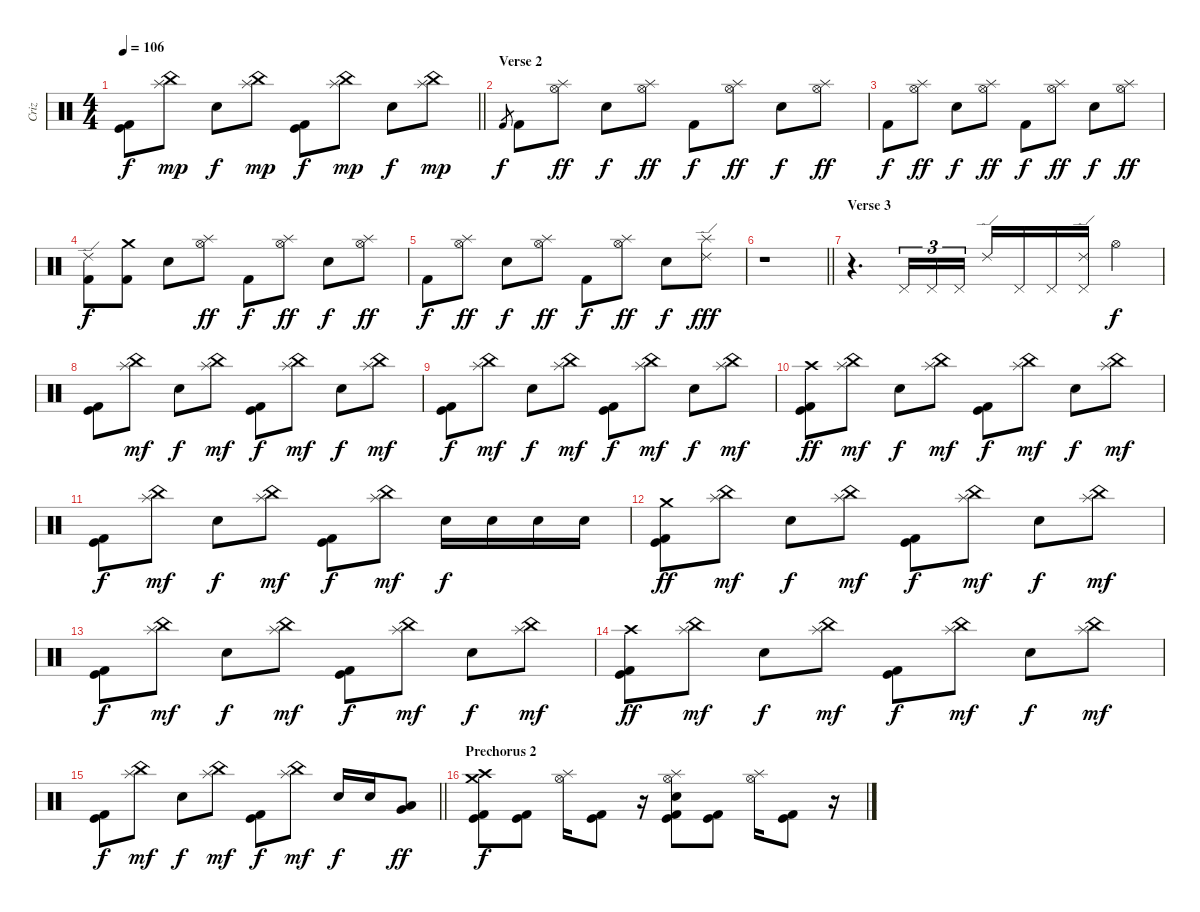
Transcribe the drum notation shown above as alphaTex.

\track ("Criz" "Criz") {instrument percussion}
\staff {score}
\articulation defaults
\ts (4 4)
\tempo 106
\clef neutral
\barLineRight lightlight
\ks c
("Kick (hit)" "Kick (hit) 2").8{dy f} ("Splash (hit)" "China (hit)").8{dy mp} "Snare (hit) 2".8{dy f} ("Splash (hit)" "China (hit)").8{dy mp} ("Kick (hit)" "Kick (hit) 2").8{dy f} ("Splash (hit)" "China (hit)").8{dy mp} "Snare (hit) 2".8{dy f} ("Splash (hit)" "China (hit)").8{dy mp} |
\section ("" "Verse 2")
"Kick (hit) 2".8{gr dy f} "Kick (hit) 2".8 ("Splash (hit)" "Hi-Hat (open)").8{dy ff} "Snare (hit) 2".8{dy f} ("Splash (hit)" "Hi-Hat (open)").8{dy ff} "Kick (hit) 2".8{dy f} ("Splash (hit)" "Hi-Hat (open)").8{dy ff} "Snare (hit) 2".8{dy f} ("Splash (hit)" "Hi-Hat (open)").8{dy ff} |
"Kick (hit) 2".8{dy f} ("Splash (hit)" "Hi-Hat (open)").8{dy ff} "Snare (hit) 2".8{dy f} ("Splash (hit)" "Hi-Hat (open)").8{dy ff} "Kick (hit) 2".8{dy f} ("Splash (hit)" "Hi-Hat (open)").8{dy ff} "Snare (hit) 2".8{dy f} ("Splash (hit)" "Hi-Hat (open)").8{dy ff} |
("Ride (edge) 2" "Kick (hit) 2").8{dy f} ("Crash medium (hit)" "Kick (hit) 2").8 "Snare (hit) 2".8 ("Splash (hit)" "Hi-Hat (open)").8{dy ff} "Kick (hit) 2".8{dy f} ("Splash (hit)" "Hi-Hat (open)").8{dy ff} "Snare (hit) 2".8{dy f} ("Splash (hit)" "Hi-Hat (open)").8{dy ff} |
"Kick (hit) 2".8{dy f} ("Splash (hit)" "Hi-Hat (open)").8{dy ff} "Snare (hit) 2".8{dy f} ("Splash (hit)" "Hi-Hat (open)").8{dy ff} "Kick (hit) 2".8{dy f} ("Splash (hit)" "Hi-Hat (open)").8{dy ff} "Snare (hit) 2".8{dy f} ("Splash (hit)" "Ride (edge) 2").8{dy fff} |
\barLineRight lightlight
r.1 |
\section ("" "Verse 3")
r.4{d} "Pedal Hi-Hat (hit)".16{tu (3 2)} "Pedal Hi-Hat (hit)".16{tu (3 2)} "Pedal Hi-Hat (hit)".16{tu (3 2)} "Ride (edge) 2".16 "Pedal Hi-Hat (hit)".16 "Pedal Hi-Hat (hit)".16 ("Ride (edge) 2" "Pedal Hi-Hat (hit)").16 "Hi-Hat (open)".4{dy f} |
("Kick (hit)" "Kick (hit) 2").8 ("Splash (hit)" "China (hit)").8{dy mf} "Snare (hit) 2".8{dy f} ("Splash (hit)" "China (hit)").8{dy mf} ("Kick (hit)" "Kick (hit) 2").8{dy f} ("Splash (hit)" "China (hit)").8{dy mf} "Snare (hit) 2".8{dy f} ("Splash (hit)" "China (hit)").8{dy mf} |
("Kick (hit)" "Kick (hit) 2").8{dy f} ("Splash (hit)" "China (hit)").8{dy mf} "Snare (hit) 2".8{dy f} ("Splash (hit)" "China (hit)").8{dy mf} ("Kick (hit)" "Kick (hit) 2").8{dy f} ("Splash (hit)" "China (hit)").8{dy mf} "Snare (hit) 2".8{dy f} ("Splash (hit)" "China (hit)").8{dy mf} |
("Crash high (hit)" "Kick (hit)" "Kick (hit) 2").8{dy ff} ("Splash (hit)" "China (hit)").8{dy mf} "Snare (hit) 2".8{dy f} ("Splash (hit)" "China (hit)").8{dy mf} ("Kick (hit)" "Kick (hit) 2").8{dy f} ("Splash (hit)" "China (hit)").8{dy mf} "Snare (hit) 2".8{dy f} ("Splash (hit)" "China (hit)").8{dy mf} |
("Kick (hit)" "Kick (hit) 2").8{dy f} ("Splash (hit)" "China (hit)").8{dy mf} "Snare (hit) 2".8{dy f} ("Splash (hit)" "China (hit)").8{dy mf} ("Kick (hit)" "Kick (hit) 2").8{dy f} ("Splash (hit)" "China (hit)").8{dy mf} "Snare (hit) 2".16{dy f} "Snare (hit) 2".16 "Snare (hit) 2".16 "Snare (hit) 2".16 |
("Crash medium (hit)" "Kick (hit)" "Kick (hit) 2").8{dy ff} ("Splash (hit)" "China (hit)").8{dy mf} "Snare (hit) 2".8{dy f} ("Splash (hit)" "China (hit)").8{dy mf} ("Kick (hit)" "Kick (hit) 2").8{dy f} ("Splash (hit)" "China (hit)").8{dy mf} "Snare (hit) 2".8{dy f} ("Splash (hit)" "China (hit)").8{dy mf} |
("Kick (hit)" "Kick (hit) 2").8{dy f} ("Splash (hit)" "China (hit)").8{dy mf} "Snare (hit) 2".8{dy f} ("Splash (hit)" "China (hit)").8{dy mf} ("Kick (hit)" "Kick (hit) 2").8{dy f} ("Splash (hit)" "China (hit)").8{dy mf} "Snare (hit) 2".8{dy f} ("Splash (hit)" "China (hit)").8{dy mf} |
("Crash high (hit)" "Kick (hit)" "Kick (hit) 2").8{dy ff} ("Splash (hit)" "China (hit)").8{dy mf} "Snare (hit) 2".8{dy f} ("Splash (hit)" "China (hit)").8{dy mf} ("Kick (hit)" "Kick (hit) 2").8{dy f} ("Splash (hit)" "China (hit)").8{dy mf} "Snare (hit) 2".8{dy f} ("Splash (hit)" "China (hit)").8{dy mf} |
\barLineRight lightlight
("Kick (hit)" "Kick (hit) 2").8{dy f} ("Splash (hit)" "China (hit)").8{dy mf} "Snare (hit) 2".8{dy f} ("Splash (hit)" "China (hit)").8{dy mf} ("Kick (hit)" "Kick (hit) 2").8{dy f} ("Splash (hit)" "China (hit)").8{dy mf} "Snare (hit) 2".16{dy f} "Snare (hit) 2".16 ("Low Tom (hit)" "Very Low Tom (hit)").8{dy ff} |
\section ("" "Prechorus 2")
("Crash high (hit)" "Crash medium (hit)" "Kick (hit)" "Kick (hit) 2").8{dy f} ("Kick (hit)" "Kick (hit) 2").8 ("Splash (hit)" "Hi-Hat (open)").16 ("Kick (hit)" "Kick (hit) 2").8 r.16 ("Splash (hit)" "Hi-Hat (open)" "Snare (hit) 2" "Kick (hit)" "Kick (hit) 2").8 ("Kick (hit)" "Kick (hit) 2").8 ("Splash (hit)" "Hi-Hat (open)").16 ("Kick (hit)" "Kick (hit) 2").8 r.16
